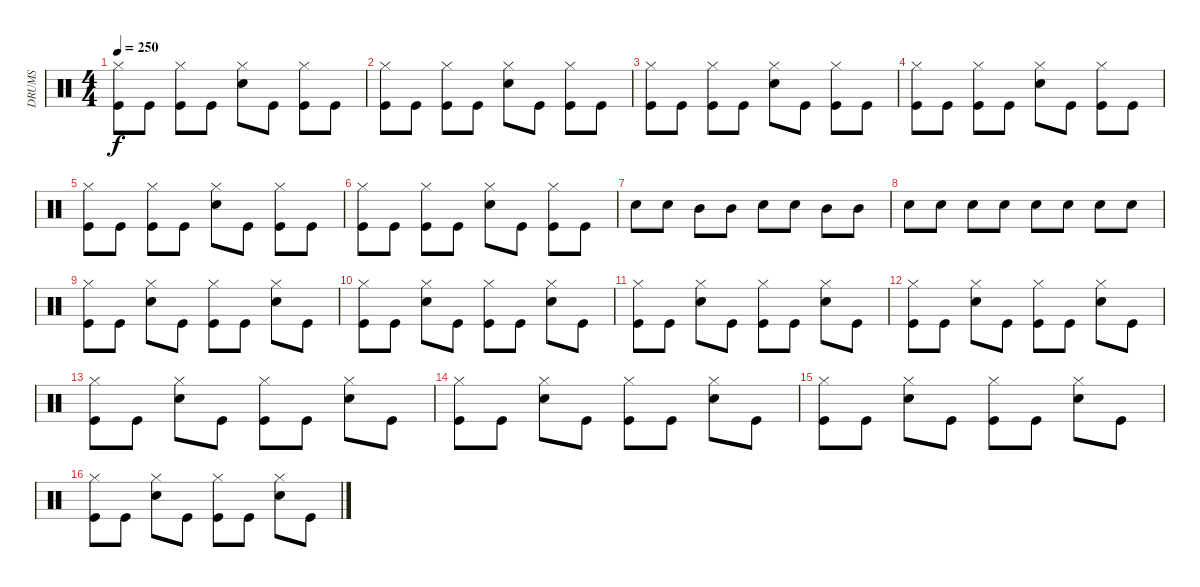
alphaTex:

\track ("DRUMS" "DRUMS") {instrument percussion}
\staff {score}
\articulation defaults
\ts (4 4)
\tempo 250
\clef neutral
\ks aminor
("Hi-Hat (closed)" "Kick (hit)").8{dy f} "Kick (hit)".8 ("Hi-Hat (closed)" "Kick (hit)").8 "Kick (hit)".8 ("Hi-Hat (closed)" "Snare (hit) 2").8 "Kick (hit)".8 ("Hi-Hat (closed)" "Kick (hit)").8 "Kick (hit)".8 |
("Hi-Hat (closed)" "Kick (hit)").8 "Kick (hit)".8 ("Hi-Hat (closed)" "Kick (hit)").8 "Kick (hit)".8 ("Hi-Hat (closed)" "Snare (hit) 2").8 "Kick (hit)".8 ("Hi-Hat (closed)" "Kick (hit)").8 "Kick (hit)".8 |
("Hi-Hat (closed)" "Kick (hit)").8 "Kick (hit)".8 ("Hi-Hat (closed)" "Kick (hit)").8 "Kick (hit)".8 ("Hi-Hat (closed)" "Snare (hit) 2").8 "Kick (hit)".8 ("Hi-Hat (closed)" "Kick (hit)").8 "Kick (hit)".8 |
("Hi-Hat (closed)" "Kick (hit)").8 "Kick (hit)".8 ("Hi-Hat (closed)" "Kick (hit)").8 "Kick (hit)".8 ("Hi-Hat (closed)" "Snare (hit) 2").8 "Kick (hit)".8 ("Hi-Hat (closed)" "Kick (hit)").8 "Kick (hit)".8 |
("Hi-Hat (closed)" "Kick (hit)").8 "Kick (hit)".8 ("Hi-Hat (closed)" "Kick (hit)").8 "Kick (hit)".8 ("Hi-Hat (closed)" "Snare (hit) 2").8 "Kick (hit)".8 ("Hi-Hat (closed)" "Kick (hit)").8 "Kick (hit)".8 |
("Hi-Hat (closed)" "Kick (hit)").8 "Kick (hit)".8 ("Hi-Hat (closed)" "Kick (hit)").8 "Kick (hit)".8 ("Hi-Hat (closed)" "Snare (hit) 2").8 "Kick (hit)".8 ("Hi-Hat (closed)" "Kick (hit)").8 "Kick (hit)".8 |
"Snare (hit) 2".8 "Snare (hit) 2".8 "Mid Tom (hit)".8 "Mid Tom (hit)".8 "Snare (hit) 2".8 "Snare (hit) 2".8 "Mid Tom (hit)".8 "Mid Tom (hit)".8 |
"Snare (hit) 2".8 "Snare (hit) 2".8 "Snare (hit) 2".8 "Snare (hit) 2".8 "Snare (hit) 2".8 "Snare (hit) 2".8 "Snare (hit) 2".8 "Snare (hit) 2".8 |
("Hi-Hat (closed)" "Kick (hit)").8 "Kick (hit)".8 ("Hi-Hat (closed)" "Snare (hit) 2").8 "Kick (hit)".8 ("Hi-Hat (closed)" "Kick (hit)").8 "Kick (hit)".8 ("Hi-Hat (closed)" "Snare (hit) 2").8 "Kick (hit)".8 |
("Hi-Hat (closed)" "Kick (hit)").8 "Kick (hit)".8 ("Hi-Hat (closed)" "Snare (hit) 2").8 "Kick (hit)".8 ("Hi-Hat (closed)" "Kick (hit)").8 "Kick (hit)".8 ("Hi-Hat (closed)" "Snare (hit) 2").8 "Kick (hit)".8 |
("Hi-Hat (closed)" "Kick (hit)").8 "Kick (hit)".8 ("Hi-Hat (closed)" "Snare (hit) 2").8 "Kick (hit)".8 ("Hi-Hat (closed)" "Kick (hit)").8 "Kick (hit)".8 ("Hi-Hat (closed)" "Snare (hit) 2").8 "Kick (hit)".8 |
("Hi-Hat (closed)" "Kick (hit)").8 "Kick (hit)".8 ("Hi-Hat (closed)" "Snare (hit) 2").8 "Kick (hit)".8 ("Hi-Hat (closed)" "Kick (hit)").8 "Kick (hit)".8 ("Hi-Hat (closed)" "Snare (hit) 2").8 "Kick (hit)".8 |
("Hi-Hat (closed)" "Kick (hit)").8 "Kick (hit)".8 ("Hi-Hat (closed)" "Snare (hit) 2").8 "Kick (hit)".8 ("Hi-Hat (closed)" "Kick (hit)").8 "Kick (hit)".8 ("Hi-Hat (closed)" "Snare (hit) 2").8 "Kick (hit)".8 |
("Hi-Hat (closed)" "Kick (hit)").8 "Kick (hit)".8 ("Hi-Hat (closed)" "Snare (hit) 2").8 "Kick (hit)".8 ("Hi-Hat (closed)" "Kick (hit)").8 "Kick (hit)".8 ("Hi-Hat (closed)" "Snare (hit) 2").8 "Kick (hit)".8 |
("Hi-Hat (closed)" "Kick (hit)").8 "Kick (hit)".8 ("Hi-Hat (closed)" "Snare (hit) 2").8 "Kick (hit)".8 ("Hi-Hat (closed)" "Kick (hit)").8 "Kick (hit)".8 ("Hi-Hat (closed)" "Snare (hit) 2").8 "Kick (hit)".8 |
("Hi-Hat (closed)" "Kick (hit)").8 "Kick (hit)".8 ("Hi-Hat (closed)" "Snare (hit) 2").8 "Kick (hit)".8 ("Hi-Hat (closed)" "Kick (hit)").8 "Kick (hit)".8 ("Hi-Hat (closed)" "Snare (hit) 2").8 "Kick (hit)".8
